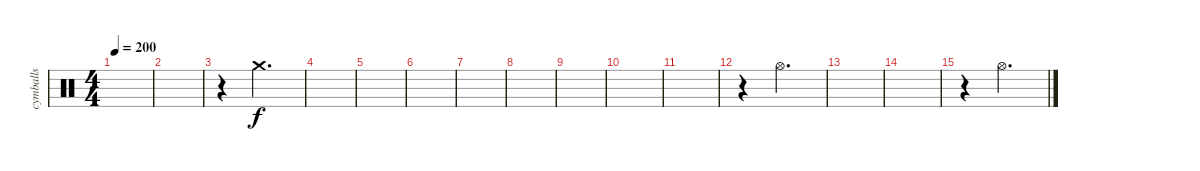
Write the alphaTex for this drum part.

\track ("cymballs" "cymballs") {instrument percussion}
\staff {score}
\articulation defaults
\ts (4 4)
\tempo 200
\clef neutral
\ks c
|
|
r.4 "Crash medium (hit)".2{d} |
|
|
|
|
|
|
|
|
r.4 "Hi-Hat (open)".2{d} |
|
|
r.4 "Hi-Hat (open)".2{d}
